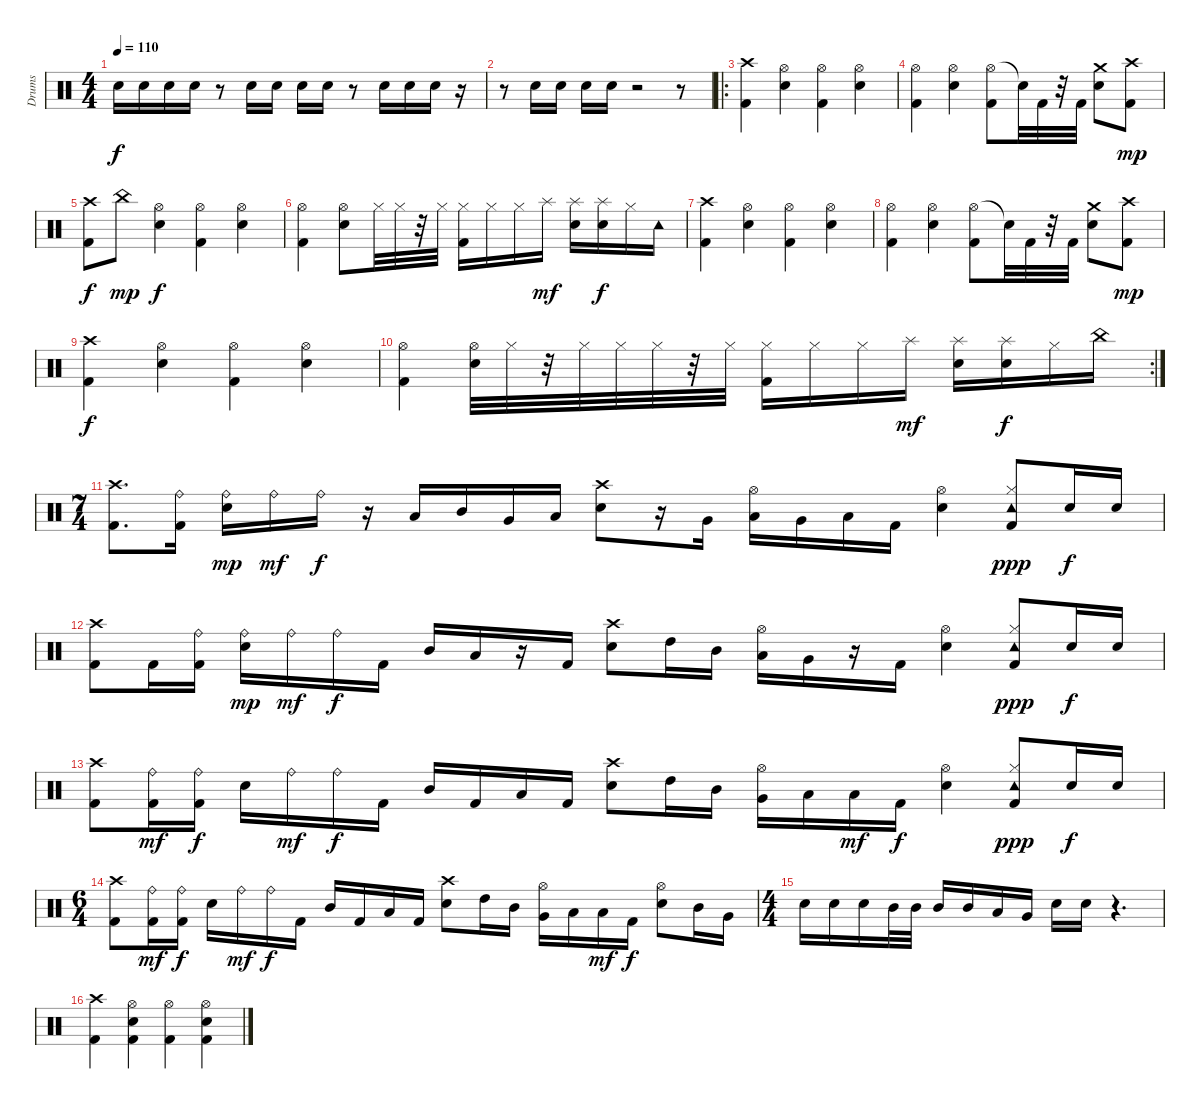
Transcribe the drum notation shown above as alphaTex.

\track ("Drums" "Drums") {instrument percussion}
\staff {score}
\articulation defaults
\ts (4 4)
\tempo 110
\clef neutral
\ks c "Electric Snare (hit)".16{dy f} "Electric Snare (hit)".16 "Electric Snare (hit)".16 "Electric Snare (hit)".16
r.8 "Electric Snare (hit)".16 "Electric Snare (hit)".16 "Electric Snare (hit)".16 "Electric Snare (hit)".16 r.8 "Electric Snare (hit)".16 "Electric Snare (hit)".16 "Electric Snare (hit)".16 r.16 |
r.8 "Electric Snare (hit)".16 "Electric Snare (hit)".16 "Electric Snare (hit)".16 "Electric Snare (hit)".16 r.2 r.8 |
\ro
("Kick (hit) 2" "Crash high (hit)").4 ("Electric Snare (hit)" "Hi-Hat (open)").4 ("Kick (hit) 2" "Hi-Hat (open)").4 ("Electric Snare (hit)" "Hi-Hat (open)").4 |
("Kick (hit) 2" "Hi-Hat (open)").4 ("Electric Snare (hit)" "Hi-Hat (open)").4 ("Hi-Hat (open)" "Kick (hit) 2").8 "Snare (hit)"{t}.32 "Kick (hit) 2".32 r.32 "Kick (hit) 2".32 ("Electric Snare (hit)" "Crash medium (hit)").8 ("Kick (hit) 2" "Crash high (hit)").8{dy mp} |
("Crash high (hit)" "Kick (hit) 2").8{dy f} "China (hit)".8{dy mp} ("Electric Snare (hit)" "Hi-Hat (open)").4{dy f} ("Kick (hit) 2" "Hi-Hat (open)").4 ("Electric Snare (hit)" "Hi-Hat (open)").4 |
("Kick (hit) 2" "Hi-Hat (open)").4 ("Electric Snare (hit)" "Hi-Hat (open)").8 "Hi-Hat (closed)".32 "Hi-Hat (closed)".32 r.32 "Hi-Hat (closed)".32 ("Kick (hit) 2" "Hi-Hat (closed)").16 "Hi-Hat (closed)".16 "Hi-Hat (closed)".16 "Splash (hit)".16{dy mf} ("Splash (hit)" "Electric Snare (hit)").16 ("Electric Snare (hit)" "Splash (hit)").16{dy f} "Hi-Hat (closed)".16 "Tambourine (hit)".16 |
("Crash high (hit)" "Kick (hit) 2").4 ("Electric Snare (hit)" "Hi-Hat (open)").4 ("Kick (hit) 2" "Hi-Hat (open)").4 ("Electric Snare (hit)" "Hi-Hat (open)").4 |
("Kick (hit) 2" "Hi-Hat (open)").4 ("Electric Snare (hit)" "Hi-Hat (open)").4 ("Hi-Hat (open)" "Kick (hit) 2").8 "Snare (hit)"{t}.32 "Kick (hit) 2".32 r.32 "Kick (hit) 2".32 ("Electric Snare (hit)" "Crash medium (hit)").8 ("Kick (hit) 2" "Crash high (hit)").8{dy mp} |
("Kick (hit) 2" "Crash high (hit)").4{dy f} ("Electric Snare (hit)" "Hi-Hat (open)").4 ("Kick (hit) 2" "Hi-Hat (open)").4 ("Electric Snare (hit)" "Hi-Hat (open)").4 |
\rc 2
("Kick (hit) 2" "Hi-Hat (open)").4 ("Electric Snare (hit)" "Hi-Hat (open)").32 "Hi-Hat (closed)".32 r.32 "Hi-Hat (closed)".32 "Hi-Hat (closed)".32 "Hi-Hat (closed)".32 r.32 "Hi-Hat (closed)".32 ("Kick (hit) 2" "Hi-Hat (closed)").16 "Hi-Hat (closed)".16 "Hi-Hat (closed)".16 "Splash (hit)".16{dy mf} ("Splash (hit)" "Electric Snare (hit)").16 ("Electric Snare (hit)" "Splash (hit)").16{dy f} "Hi-Hat (closed)".16 "China (hit)".16 |
\ts (7 4)
("Crash high (hit)" "Kick (hit) 2").8{d} ("Kick (hit) 2" "Ride (bell)").16 ("Electric Snare (hit)" "Ride (bell)").16{dy mp} "Ride (bell)".16{dy mf} "Ride (bell)".16{dy f} r.16 "Low Tom (hit)".16 "Mid Tom (hit)".16 "Very Low Tom (hit)".16 "Low Floor Tom (hit)".16 ("Crash high (hit)" "Electric Snare (hit)").8 r.16 "Very Low Tom (hit)".16 ("Low Tom (hit)" "Hi-Hat (open)").16 "Very Low Tom (hit)".16 "Low Floor Tom (hit)".16 "Kick (hit) 2".16 ("Electric Snare (hit)" "Hi-Hat (open)").4 ("Tambourine (hit)" "Kick (hit) 2" "Hi-Hat (closed)").8{dy ppp} "Electric Snare (hit)".16{dy f} "Electric Snare (hit)".16 |
("Crash high (hit)" "Kick (hit) 2").8 "Kick (hit) 2".16 ("Kick (hit) 2" "Ride (bell)").16 ("Ride (bell)" "Electric Snare (hit)").16{dy mp} "Ride (bell)".16{dy mf} "Ride (bell)".16{dy f} "Kick (hit) 2".16 "Mid Tom (hit)".16 "Low Tom (hit)".16 r.16 "Kick (hit) 2".16 ("Crash high (hit)" "Electric Snare (hit)").8 "High Tom (hit)".16 "Mid Tom (hit)".16 ("Low Tom (hit)" "Hi-Hat (open)").16 "Very Low Tom (hit)".16 r.16 "Kick (hit) 2".16 ("Electric Snare (hit)" "Hi-Hat (open)").4 ("Tambourine (hit)" "Kick (hit) 2" "Hi-Hat (closed)").8{dy ppp} "Electric Snare (hit)".16{dy f} "Electric Snare (hit)".16 |
("Kick (hit) 2" "Crash high (hit)").8 ("Kick (hit) 2" "Ride (bell)").16{dy mf} ("Kick (hit) 2" "Ride (bell)").16{dy f} "Electric Snare (hit)".16 "Ride (bell)".16{dy mf} "Ride (bell)".16{dy f} "Kick (hit) 2".16 "Mid Tom (hit)".16 "Kick (hit) 2".16 "Low Tom (hit)".16 "Kick (hit) 2".16 ("Crash high (hit)" "Electric Snare (hit)").8 "High Tom (hit)".16 "Mid Tom (hit)".16 ("Hi-Hat (open)" "Very Low Tom (hit)").16 "Low Floor Tom (hit)".16 "Low Floor Tom (hit)".16{dy mf} "Kick (hit) 2".16{dy f} ("Electric Snare (hit)" "Hi-Hat (open)").4 ("Tambourine (hit)" "Kick (hit) 2" "Hi-Hat (closed)").8{dy ppp} "Electric Snare (hit)".16{dy f} "Electric Snare (hit)".16 |
\ts (6 4)
("Crash high (hit)" "Kick (hit) 2").8 ("Kick (hit) 2" "Ride (bell)").16{dy mf} ("Kick (hit) 2" "Ride (bell)").16{dy f} "Electric Snare (hit)".16 "Ride (bell)".16{dy mf} "Ride (bell)".16{dy f} "Kick (hit) 2".16 "Mid Tom (hit)".16 "Kick (hit) 2".16 "Low Tom (hit)".16 "Kick (hit) 2".16 ("Crash high (hit)" "Electric Snare (hit)").8 "High Tom (hit)".16 "Mid Tom (hit)".16 ("Hi-Hat (open)" "Very Low Tom (hit)").16 "Low Floor Tom (hit)".16 "Low Floor Tom (hit)".16{dy mf} "Kick (hit) 2".16{dy f} ("Electric Snare (hit)" "Hi-Hat (open)").8 "Mid Tom (hit)".16 "Very Low Tom (hit)".16 |
\ts (4 4)
"Electric Snare (hit)".16 "Electric Snare (hit)".16 "Electric Snare (hit)".16 "Mid Tom (hit)".32 "Mid Tom (hit)".32 "Mid Tom (hit)".16 "Mid Tom (hit)".16 "Low Tom (hit)".16 "Very Low Tom (hit)".16 "Electric Snare (hit)".16 "Electric Snare (hit)".16 r.4{d} |
("Kick (hit) 2" "Crash high (hit)").4 ("Hi-Hat (open)" "Electric Snare (hit)" "Kick (hit) 2").4 ("Hi-Hat (open)" "Kick (hit) 2").4 ("Hi-Hat (open)" "Electric Snare (hit)" "Kick (hit) 2").4
